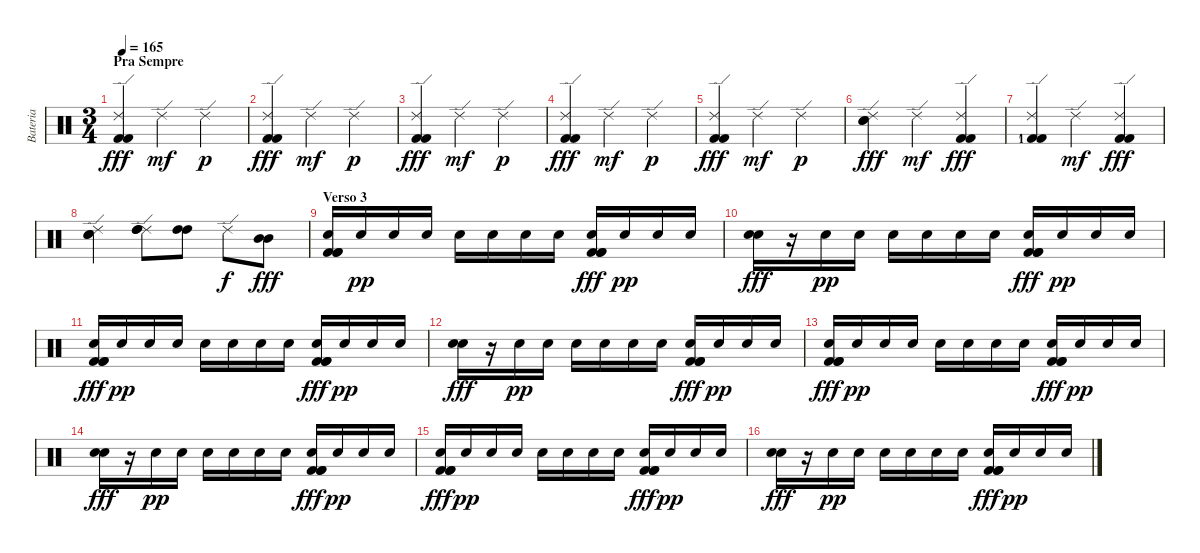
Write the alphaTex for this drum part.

\track ("Bateria" "Bateria") {instrument percussion}
\staff {score}
\articulation defaults
\ts (3 4)
\section ("" "Pra Sempre")
\tempo 165
\clef neutral
\ks c
("Ride (edge) 2" "Kick (hit) 2" "Kick (hit) 2").4{dy fff} "Ride (edge) 2".4{dy mf} "Ride (edge) 2".4{dy p} |
("Ride (edge) 2" "Kick (hit) 2" "Kick (hit) 2").4{dy fff} "Ride (edge) 2".4{dy mf} "Ride (edge) 2".4{dy p} |
("Ride (edge) 2" "Kick (hit) 2" "Kick (hit) 2").4{dy fff} "Ride (edge) 2".4{dy mf} "Ride (edge) 2".4{dy p} |
("Ride (edge) 2" "Kick (hit) 2" "Kick (hit) 2").4{dy fff} "Ride (edge) 2".4{dy mf} "Ride (edge) 2".4{dy p} |
("Ride (edge) 2" "Kick (hit) 2" "Kick (hit) 2").4{dy fff} "Ride (edge) 2".4{dy mf} "Ride (edge) 2".4{dy p} |
("Ride (edge) 2" "Electric Snare (hit)" "Snare (hit) 2").4{dy fff} "Ride (edge) 2".4{dy mf} ("Ride (edge) 2" "Kick (hit) 2" "Kick (hit) 2").4{dy fff} |
("Ride (edge) 2" "Kick (hit) 2" "Kick (hit) 2"{lf 1}).4 "Ride (edge) 2".4{dy mf} ("Ride (edge) 2" "Kick (hit) 2" "Kick (hit) 2").4{dy fff} |
("Ride (edge) 2" "Electric Snare (hit)" "Electric Snare (hit)").4 ("Ride (edge) 2" "High Tom (hit)" "High Tom (hit)").8 ("High Tom (hit)" "High Tom (hit)").8 "Ride (edge) 2".8{dy f} ("Mid Tom (hit)" "Mid Tom (hit)").8{dy fff} |
\section ("" "Verso 3")
("Electric Snare (hit)" "Kick (hit) 2" "Kick (hit) 2" "Kick (hit) 2").16 "Electric Snare (hit)".16{dy pp} "Electric Snare (hit)".16 "Electric Snare (hit)".16 "Electric Snare (hit)".16 "Electric Snare (hit)".16 "Electric Snare (hit)".16 "Electric Snare (hit)".16 ("Electric Snare (hit)" "Kick (hit) 2" "Kick (hit) 2" "Kick (hit) 2").16{dy fff} "Electric Snare (hit)".16{dy pp} "Electric Snare (hit)".16 "Electric Snare (hit)".16 |
("Electric Snare (hit)" "Electric Snare (hit)").16{dy fff} r.16 "Electric Snare (hit)".16{dy pp} "Electric Snare (hit)".16 "Electric Snare (hit)".16 "Electric Snare (hit)".16 "Electric Snare (hit)".16 "Electric Snare (hit)".16 ("Electric Snare (hit)" "Kick (hit) 2" "Kick (hit) 2" "Kick (hit) 2").16{dy fff} "Electric Snare (hit)".16{dy pp} "Electric Snare (hit)".16 "Electric Snare (hit)".16 |
("Electric Snare (hit)" "Kick (hit) 2" "Kick (hit) 2" "Kick (hit) 2").16{dy fff} "Electric Snare (hit)".16{dy pp} "Electric Snare (hit)".16 "Electric Snare (hit)".16 "Electric Snare (hit)".16 "Electric Snare (hit)".16 "Electric Snare (hit)".16 "Electric Snare (hit)".16 ("Electric Snare (hit)" "Kick (hit) 2" "Kick (hit) 2" "Kick (hit) 2").16{dy fff} "Electric Snare (hit)".16{dy pp} "Electric Snare (hit)".16 "Electric Snare (hit)".16 |
("Electric Snare (hit)" "Electric Snare (hit)").16{dy fff} r.16 "Electric Snare (hit)".16{dy pp} "Electric Snare (hit)".16 "Electric Snare (hit)".16 "Electric Snare (hit)".16 "Electric Snare (hit)".16 "Electric Snare (hit)".16 ("Electric Snare (hit)" "Kick (hit) 2" "Kick (hit) 2" "Kick (hit) 2").16{dy fff} "Electric Snare (hit)".16{dy pp} "Electric Snare (hit)".16 "Electric Snare (hit)".16 |
("Electric Snare (hit)" "Kick (hit) 2" "Kick (hit) 2" "Kick (hit) 2").16{dy fff} "Electric Snare (hit)".16{dy pp} "Electric Snare (hit)".16 "Electric Snare (hit)".16 "Electric Snare (hit)".16 "Electric Snare (hit)".16 "Electric Snare (hit)".16 "Electric Snare (hit)".16 ("Electric Snare (hit)" "Kick (hit) 2" "Kick (hit) 2" "Kick (hit) 2").16{dy fff} "Electric Snare (hit)".16{dy pp} "Electric Snare (hit)".16 "Electric Snare (hit)".16 |
("Electric Snare (hit)" "Electric Snare (hit)").16{dy fff} r.16 "Electric Snare (hit)".16{dy pp} "Electric Snare (hit)".16 "Electric Snare (hit)".16 "Electric Snare (hit)".16 "Electric Snare (hit)".16 "Electric Snare (hit)".16 ("Electric Snare (hit)" "Kick (hit) 2" "Kick (hit) 2" "Kick (hit) 2").16{dy fff} "Electric Snare (hit)".16{dy pp} "Electric Snare (hit)".16 "Electric Snare (hit)".16 |
("Electric Snare (hit)" "Kick (hit) 2" "Kick (hit) 2" "Kick (hit) 2").16{dy fff} "Electric Snare (hit)".16{dy pp} "Electric Snare (hit)".16 "Electric Snare (hit)".16 "Electric Snare (hit)".16 "Electric Snare (hit)".16 "Electric Snare (hit)".16 "Electric Snare (hit)".16 ("Electric Snare (hit)" "Kick (hit) 2" "Kick (hit) 2" "Kick (hit) 2").16{dy fff} "Electric Snare (hit)".16{dy pp} "Electric Snare (hit)".16 "Electric Snare (hit)".16 |
("Electric Snare (hit)" "Electric Snare (hit)").16{dy fff} r.16 "Electric Snare (hit)".16{dy pp} "Electric Snare (hit)".16 "Electric Snare (hit)".16 "Electric Snare (hit)".16 "Electric Snare (hit)".16 "Electric Snare (hit)".16 ("Electric Snare (hit)" "Kick (hit) 2" "Kick (hit) 2" "Kick (hit) 2").16{dy fff} "Electric Snare (hit)".16{dy pp} "Electric Snare (hit)".16 "Electric Snare (hit)".16
